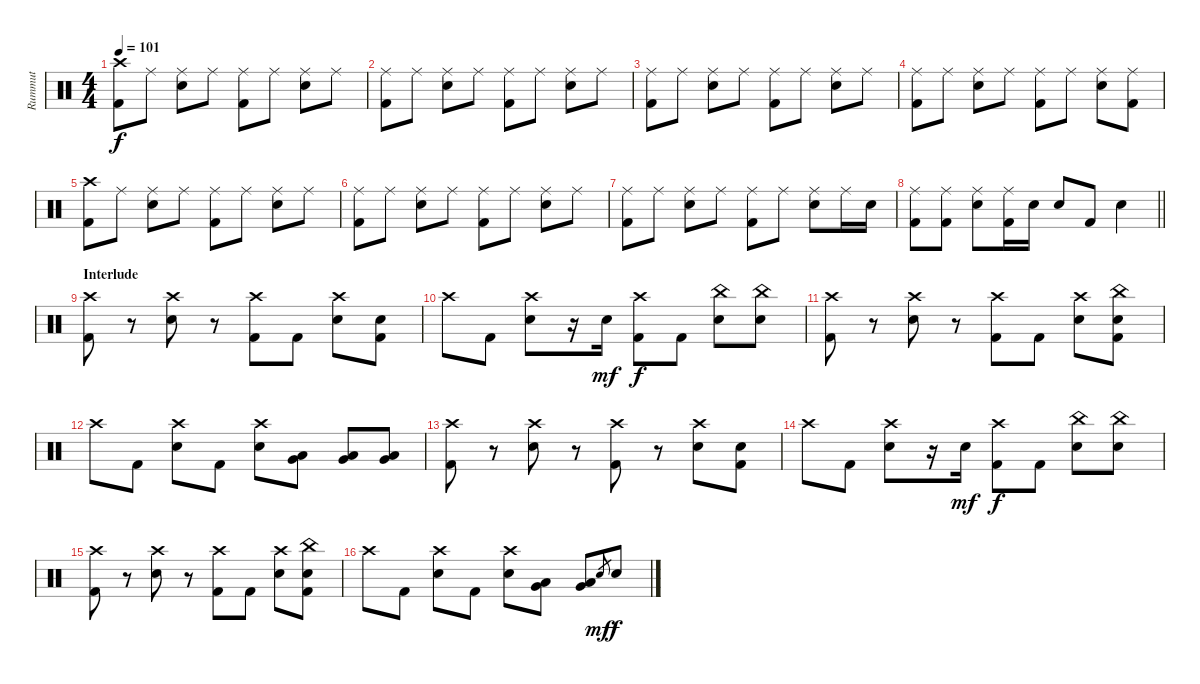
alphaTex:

\track ("Rummut" "Rummut") {instrument percussion}
\staff {score}
\articulation defaults
\ts (4 4)
\tempo 101
\clef neutral
\ks c
("Crash high (hit)" "Kick (hit) 2").8{dy f} "Ride (middle)".8 ("Ride (middle)" "Electric Snare (hit)").8 "Ride (middle)".8 ("Ride (middle)" "Kick (hit) 2").8 "Ride (middle)".8 ("Ride (middle)" "Electric Snare (hit)").8 "Ride (middle)".8 |
("Ride (middle)" "Kick (hit) 2").8 "Ride (middle)".8 ("Ride (middle)" "Electric Snare (hit)").8 "Ride (middle)".8 ("Ride (middle)" "Kick (hit) 2").8 "Ride (middle)".8 ("Ride (middle)" "Electric Snare (hit)").8 "Ride (middle)".8 |
("Ride (middle)" "Kick (hit) 2").8 "Ride (middle)".8 ("Ride (middle)" "Electric Snare (hit)").8 "Ride (middle)".8 ("Ride (middle)" "Kick (hit) 2").8 "Ride (middle)".8 ("Ride (middle)" "Electric Snare (hit)").8 "Ride (middle)".8 |
("Ride (middle)" "Kick (hit) 2").8 "Ride (middle)".8 ("Ride (middle)" "Electric Snare (hit)").8 "Ride (middle)".8 ("Ride (middle)" "Kick (hit) 2").8 "Ride (middle)".8 ("Ride (middle)" "Electric Snare (hit)").8 ("Ride (middle)" "Kick (hit) 2").8 |
("Crash high (hit)" "Kick (hit) 2").8 "Ride (middle)".8 ("Ride (middle)" "Electric Snare (hit)").8 "Ride (middle)".8 ("Ride (middle)" "Kick (hit) 2").8 "Ride (middle)".8 ("Ride (middle)" "Electric Snare (hit)").8 "Ride (middle)".8 |
("Ride (middle)" "Kick (hit) 2").8 "Ride (middle)".8 ("Ride (middle)" "Electric Snare (hit)").8 "Ride (middle)".8 ("Ride (middle)" "Kick (hit) 2").8 "Ride (middle)".8 ("Ride (middle)" "Electric Snare (hit)").8 "Ride (middle)".8 |
("Ride (middle)" "Kick (hit) 2").8 "Ride (middle)".8 ("Ride (middle)" "Electric Snare (hit)").8 "Ride (middle)".8 ("Ride (middle)" "Kick (hit) 2").8 "Ride (middle)".8 ("Ride (middle)" "Electric Snare (hit)").8 "Ride (middle)".16 "Electric Snare (hit)".16 |
\barLineRight lightlight
("Ride (middle)" "Kick (hit) 2").8 ("Ride (middle)" "Kick (hit) 2").8 ("Ride (middle)" "Electric Snare (hit)").8 ("Ride (middle)" "Kick (hit) 2").16 "Electric Snare (hit)".16 "Electric Snare (hit)".8 "Kick (hit) 2".8 "Electric Snare (hit)".4 |
\section ("" "Interlude")
("Crash high (hit)" "Kick (hit) 2").8 r.8 ("Crash high (hit)" "Electric Snare (hit)").8 r.8 ("Crash high (hit)" "Kick (hit) 2").8 "Kick (hit) 2".8 ("Crash high (hit)" "Electric Snare (hit)").8 ("Electric Snare (hit)" "Kick (hit) 2").8 |
"Crash high (hit)".8 "Kick (hit) 2".8 ("Crash high (hit)" "Electric Snare (hit)").8 r.16 "Electric Snare (hit)".16{dy mf} ("Crash high (hit)" "Kick (hit) 2").8{dy f} "Kick (hit) 2".8 ("China (hit)" "Electric Snare (hit)").8 ("China (hit)" "Electric Snare (hit)").8 |
("Crash high (hit)" "Kick (hit) 2").8 r.8 ("Crash high (hit)" "Electric Snare (hit)").8 r.8 ("Crash high (hit)" "Kick (hit) 2").8 "Kick (hit) 2".8 ("Crash high (hit)" "Electric Snare (hit)").8 ("China (hit)" "Electric Snare (hit)" "Kick (hit) 2").8 |
"Crash high (hit)".8 "Kick (hit) 2".8 ("Crash high (hit)" "Electric Snare (hit)").8 "Kick (hit) 2".8 ("Crash high (hit)" "Electric Snare (hit)").8 ("Very Low Tom (hit)" "Low Floor Tom (hit)").8 ("Very Low Tom (hit)" "Low Floor Tom (hit)").8 ("Very Low Tom (hit)" "Low Floor Tom (hit)").8 |
("Crash high (hit)" "Kick (hit) 2").8 r.8 ("Crash high (hit)" "Electric Snare (hit)").8 r.8 ("Crash high (hit)" "Kick (hit) 2").8 r.8 ("Crash high (hit)" "Electric Snare (hit)").8 ("Electric Snare (hit)" "Kick (hit) 2").8 |
"Crash high (hit)".8 "Kick (hit) 2".8 ("Crash high (hit)" "Electric Snare (hit)").8 r.16 "Electric Snare (hit)".16{dy mf} ("Crash high (hit)" "Kick (hit) 2").8{dy f} "Kick (hit) 2".8 ("China (hit)" "Electric Snare (hit)").8 ("China (hit)" "Electric Snare (hit)").8 |
("Crash high (hit)" "Kick (hit) 2").8 r.8 ("Crash high (hit)" "Electric Snare (hit)").8 r.8 ("Crash high (hit)" "Kick (hit) 2").8 "Kick (hit) 2".8 ("Crash high (hit)" "Electric Snare (hit)").8 ("China (hit)" "Electric Snare (hit)" "Kick (hit) 2").8 |
"Crash high (hit)".8 "Kick (hit) 2".8 ("Crash high (hit)" "Electric Snare (hit)").8 "Kick (hit) 2".8 ("Crash high (hit)" "Electric Snare (hit)").8 ("Very Low Tom (hit)" "Low Floor Tom (hit)").8 ("Very Low Tom (hit)" "Low Floor Tom (hit)").8 "Electric Snare (hit)".8{gr dy mf} "Electric Snare (hit)".8{dy f}
